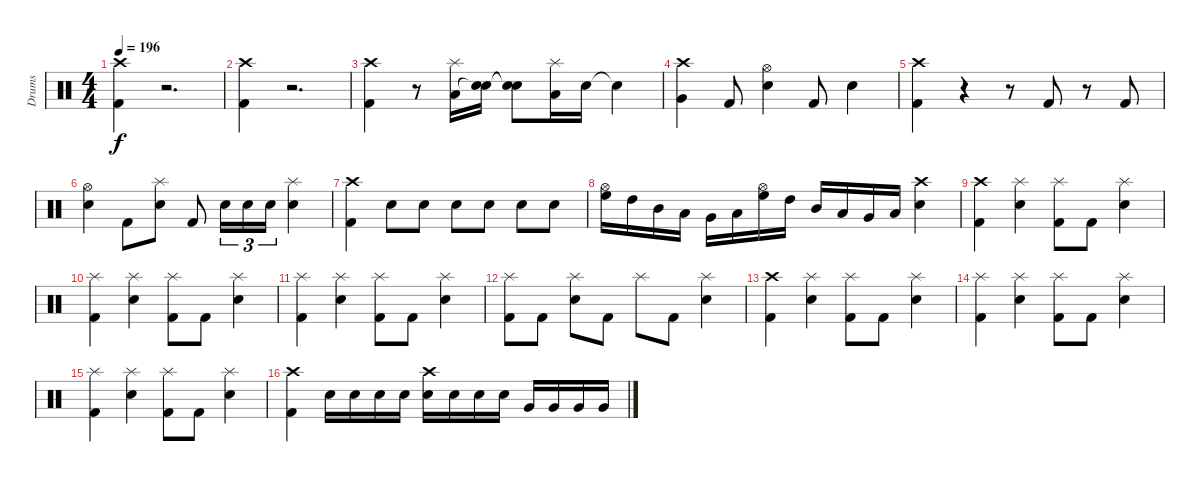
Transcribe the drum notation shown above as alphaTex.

\track ("Drums" "Drums") {instrument percussion}
\staff {score}
\articulation defaults
\ts (4 4)
\tempo 196
\clef neutral
\ks c
("Crash high (hit)" "Kick (hit) 2").4{dy f} r.2{d} |
("Crash high (hit)" "Kick (hit) 2").4 r.2{d} |
("Crash high (hit)" "Kick (hit) 2").4 r.8 ("Splash (hit)" "Low Tom (hit)").16 ("Electric Snare (hit)" "Snare (hit)"{t}).16 ("Snare (hit)"{t} "Snare (hit)"{t}).8 ("Splash (hit)" "Low Tom (hit)").16 "Snare (hit) 2".16 "Snare (hit)"{t}.4 |
("Crash high (hit)" "Very Low Tom (hit)").4 "Kick (hit) 2".8 ("Hi-Hat (open)" "Snare (hit) 2").4 "Kick (hit) 2".8 "Electric Snare (hit)".4 |
("Crash high (hit)" "Kick (hit) 2").4 r.4 r.8 "Kick (hit) 2".8 r.8 "Kick (hit) 2".8 |
("Hi-Hat (open)" "Electric Snare (hit)").4 "Kick (hit) 2".8 ("Splash (hit)" "Electric Snare (hit)").8 "Kick (hit) 2".8 "Electric Snare (hit)".16{tu (3 2)} "Electric Snare (hit)".16{tu (3 2)} "Electric Snare (hit)".16{tu (3 2)} ("Splash (hit)" "Electric Snare (hit)").4 |
("Crash high (hit)" "Kick (hit) 2").4 "Electric Snare (hit)".8 "Electric Snare (hit)".8 "Electric Snare (hit)".8 "Electric Snare (hit)".8 "Electric Snare (hit)".8 "Electric Snare (hit)".8 |
("Hi-Hat (open)" "High Floor Tom (hit)").16 "High Tom (hit)".16 "Mid Tom (hit)".16 "Low Tom (hit)".16 "Very Low Tom (hit)".16 "Low Floor Tom (hit)".16 ("Hi-Hat (open)" "High Floor Tom (hit)").16 "High Tom (hit)".16 "Mid Tom (hit)".16 "Low Tom (hit)".16 "Very Low Tom (hit)".16 "Low Floor Tom (hit)".16 ("Crash high (hit)" "Snare (hit) 2").4 |
("Crash high (hit)" "Kick (hit) 2").4 ("Splash (hit)" "Snare (hit) 2").4 ("Splash (hit)" "Kick (hit) 2").8 "Kick (hit) 2".8 ("Splash (hit)" "Snare (hit) 2").4 |
("Splash (hit)" "Kick (hit) 2").4 ("Splash (hit)" "Snare (hit) 2").4 ("Splash (hit)" "Kick (hit) 2").8 "Kick (hit) 2".8 ("Splash (hit)" "Snare (hit) 2").4 |
("Splash (hit)" "Kick (hit) 2").4 ("Splash (hit)" "Snare (hit) 2").4 ("Splash (hit)" "Kick (hit) 2").8 "Kick (hit) 2".8 ("Splash (hit)" "Snare (hit) 2").4 |
("Splash (hit)" "Kick (hit) 2").8 "Kick (hit) 2".8 ("Splash (hit)" "Snare (hit) 2").8 "Kick (hit) 2".8 "Splash (hit)".8 "Kick (hit) 2".8 ("Splash (hit)" "Snare (hit) 2").4 |
("Crash high (hit)" "Kick (hit) 2").4 ("Splash (hit)" "Snare (hit) 2").4 ("Splash (hit)" "Kick (hit) 2").8 "Kick (hit) 2".8 ("Splash (hit)" "Snare (hit) 2").4 |
("Splash (hit)" "Kick (hit) 2").4 ("Splash (hit)" "Snare (hit) 2").4 ("Splash (hit)" "Kick (hit) 2").8 "Kick (hit) 2".8 ("Splash (hit)" "Snare (hit) 2").4 |
("Splash (hit)" "Kick (hit) 2").4 ("Splash (hit)" "Snare (hit) 2").4 ("Splash (hit)" "Kick (hit) 2").8 "Kick (hit) 2".8 ("Splash (hit)" "Snare (hit) 2").4 |
("Crash high (hit)" "Kick (hit) 2").4 "Snare (hit) 2".16 "Snare (hit) 2".16 "Snare (hit) 2".16 "Snare (hit) 2".16 ("Crash high (hit)" "Electric Snare (hit)").16 "Electric Snare (hit)".16 "Electric Snare (hit)".16 "Electric Snare (hit)".16 "Very Low Tom (hit)".16 "Very Low Tom (hit)".16 "Very Low Tom (hit)".16 "Very Low Tom (hit)".16
